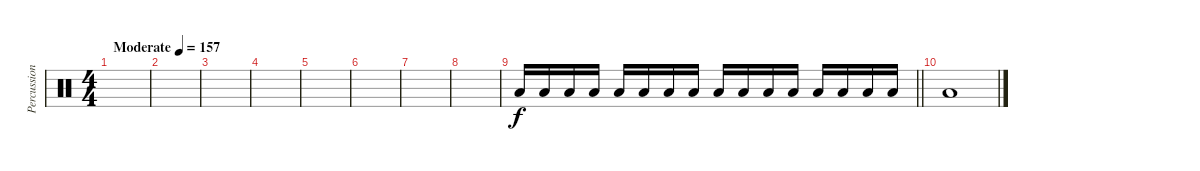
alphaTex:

\track ("Percussion" "Percussion") {instrument percussion}
\staff {score}
\articulation defaults
\ts (4 4)
\tempo (157 "Moderate")
\clef neutral
\ks c
|
|
|
|
|
|
|
|
\barLineRight lightlight "Low Floor Tom (hit)".16 "Low Floor Tom (hit)".16 "Low Floor Tom (hit)".16 "Low Floor Tom (hit)".16 "Low Floor Tom (hit)".16 "Low Floor Tom (hit)".16 "Low Floor Tom (hit)".16 "Low Floor Tom (hit)".16 "Low Floor Tom (hit)".16 "Low Floor Tom (hit)".16 "Low Floor Tom (hit)".16 "Low Floor Tom (hit)".16 "Low Floor Tom (hit)".16 "Low Floor Tom (hit)".16 "Low Floor Tom (hit)".16 "Low Floor Tom (hit)".16
|
"Low Floor Tom (hit)".1
